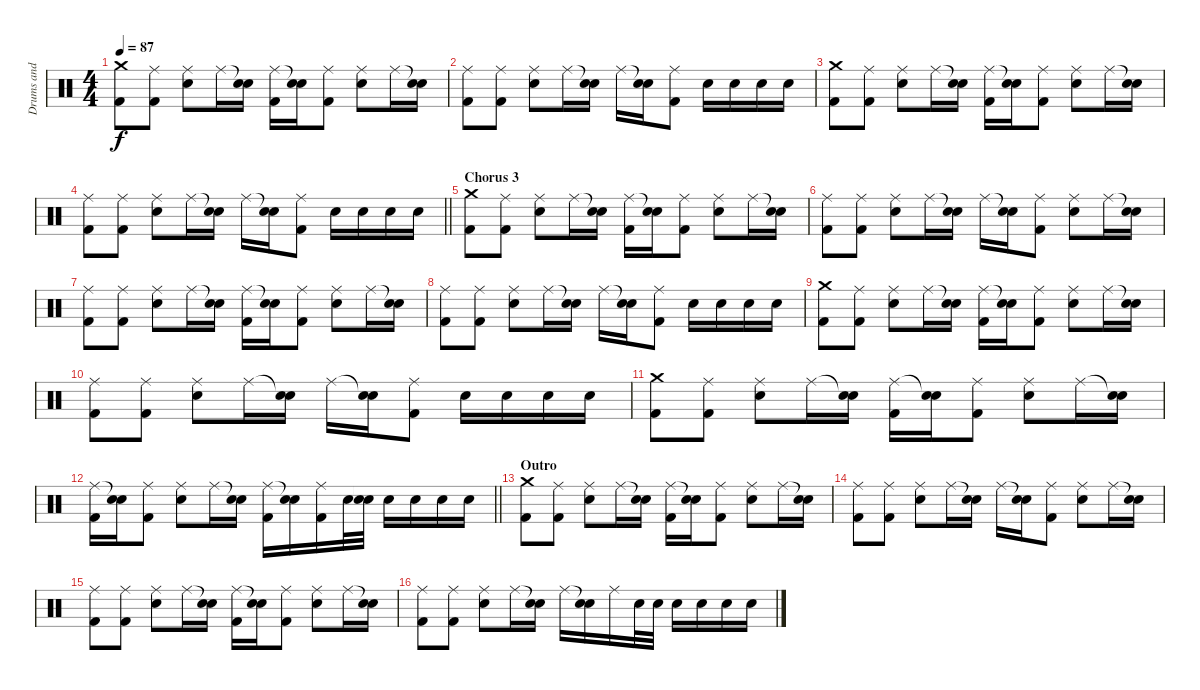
\track ("Drums and Percussion" "Drums and ") {instrument percussion}
\staff {score}
\articulation defaults
\ts (4 4)
\tempo 87
\clef neutral
\ks c
("Crash medium (hit)" "Kick (hit) 2").8{dy f} ("Ride (middle)" "Kick (hit) 2").8 ("Ride (middle)" "Snare (hit) 2").8 "Ride (middle)".16 ("Snare (hit)"{t} "Snare (hit) 2").16 ("Ride (middle)" "Kick (hit) 2").16 ("Snare (hit)"{t} "Snare (hit) 2").16 ("Ride (middle)" "Kick (hit) 2").8 ("Ride (middle)" "Snare (hit) 2").8 "Ride (middle)".16 ("Snare (hit)"{t} "Snare (hit) 2").16 |
("Ride (middle)" "Kick (hit) 2").8 ("Ride (middle)" "Kick (hit) 2").8 ("Ride (middle)" "Snare (hit) 2").8 "Ride (middle)".16 ("Snare (hit)"{t} "Snare (hit) 2").16 "Ride (middle)".16 ("Snare (hit)"{t} "Snare (hit) 2").16 ("Ride (middle)" "Kick (hit) 2").8 "Snare (hit) 2".16 "Snare (hit) 2".16 "Snare (hit) 2".16 "Snare (hit) 2".16 |
("Crash medium (hit)" "Kick (hit) 2").8 ("Ride (middle)" "Kick (hit) 2").8 ("Ride (middle)" "Snare (hit) 2").8 "Ride (middle)".16 ("Snare (hit)"{t} "Snare (hit) 2").16 ("Ride (middle)" "Kick (hit) 2").16 ("Snare (hit)"{t} "Snare (hit) 2").16 ("Ride (middle)" "Kick (hit) 2").8 ("Ride (middle)" "Snare (hit) 2").8 "Ride (middle)".16 ("Snare (hit)"{t} "Snare (hit) 2").16 |
\barLineRight lightlight
("Ride (middle)" "Kick (hit) 2").8 ("Ride (middle)" "Kick (hit) 2").8 ("Ride (middle)" "Snare (hit) 2").8 "Ride (middle)".16 ("Snare (hit)"{t} "Snare (hit) 2").16 "Ride (middle)".16 ("Snare (hit)"{t} "Snare (hit) 2").16 ("Ride (middle)" "Kick (hit) 2").8 "Snare (hit) 2".16 "Snare (hit) 2".16 "Snare (hit) 2".16 "Snare (hit) 2".16 |
\section ("" "Chorus 3")
("Crash medium (hit)" "Kick (hit) 2").8 ("Ride (middle)" "Kick (hit) 2").8 ("Ride (middle)" "Snare (hit) 2").8 "Ride (middle)".16 ("Snare (hit)"{t} "Snare (hit) 2").16 ("Ride (middle)" "Kick (hit) 2").16 ("Snare (hit)"{t} "Snare (hit) 2").16 ("Ride (middle)" "Kick (hit) 2").8 ("Ride (middle)" "Snare (hit) 2").8 "Ride (middle)".16 ("Snare (hit)"{t} "Snare (hit) 2").16 |
("Ride (middle)" "Kick (hit) 2").8 ("Ride (middle)" "Kick (hit) 2").8 ("Ride (middle)" "Snare (hit) 2").8 "Ride (middle)".16 ("Snare (hit)"{t} "Snare (hit) 2").16 "Ride (middle)".16 ("Snare (hit)"{t} "Snare (hit) 2").16 ("Ride (middle)" "Kick (hit) 2").8 ("Ride (middle)" "Snare (hit) 2").8 "Ride (middle)".16 ("Snare (hit)"{t} "Snare (hit) 2").16 |
("Ride (middle)" "Kick (hit) 2").8 ("Ride (middle)" "Kick (hit) 2").8 ("Ride (middle)" "Snare (hit) 2").8 "Ride (middle)".16 ("Snare (hit)"{t} "Snare (hit) 2").16 ("Ride (middle)" "Kick (hit) 2").16 ("Snare (hit)"{t} "Snare (hit) 2").16 ("Ride (middle)" "Kick (hit) 2").8 ("Ride (middle)" "Snare (hit) 2").8 "Ride (middle)".16 ("Snare (hit)"{t} "Snare (hit) 2").16 |
("Ride (middle)" "Kick (hit) 2").8 ("Ride (middle)" "Kick (hit) 2").8 ("Ride (middle)" "Snare (hit) 2").8 "Ride (middle)".16 ("Snare (hit)"{t} "Snare (hit) 2").16 "Ride (middle)".16 ("Snare (hit)"{t} "Snare (hit) 2").16 ("Ride (middle)" "Kick (hit) 2").8 "Snare (hit) 2".16 "Snare (hit) 2".16 "Snare (hit) 2".16 "Snare (hit) 2".16 |
("Crash medium (hit)" "Kick (hit) 2").8 ("Ride (middle)" "Kick (hit) 2").8 ("Ride (middle)" "Snare (hit) 2").8 "Ride (middle)".16 ("Snare (hit)"{t} "Snare (hit) 2").16 ("Ride (middle)" "Kick (hit) 2").16 ("Snare (hit)"{t} "Snare (hit) 2").16 ("Ride (middle)" "Kick (hit) 2").8 ("Ride (middle)" "Snare (hit) 2").8 "Ride (middle)".16 ("Snare (hit)"{t} "Snare (hit) 2").16 |
("Ride (middle)" "Kick (hit) 2").8 ("Ride (middle)" "Kick (hit) 2").8 ("Ride (middle)" "Snare (hit) 2").8 "Ride (middle)".16 ("Snare (hit)"{t} "Snare (hit) 2").16 "Ride (middle)".16 ("Snare (hit)"{t} "Snare (hit) 2").16 ("Ride (middle)" "Kick (hit) 2").8 "Snare (hit) 2".16 "Snare (hit) 2".16 "Snare (hit) 2".16 "Snare (hit) 2".16 |
("Crash medium (hit)" "Kick (hit) 2").8 ("Ride (middle)" "Kick (hit) 2").8 ("Ride (middle)" "Snare (hit) 2").8 "Ride (middle)".16 ("Snare (hit)"{t} "Snare (hit) 2").16 ("Ride (middle)" "Kick (hit) 2").16 ("Snare (hit)"{t} "Snare (hit) 2").16 ("Ride (middle)" "Kick (hit) 2").8 ("Ride (middle)" "Snare (hit) 2").8 "Ride (middle)".16 ("Snare (hit)"{t} "Snare (hit) 2").16 |
\barLineRight lightlight
("Ride (middle)" "Kick (hit) 2").16 ("Snare (hit)"{t} "Snare (hit) 2").16 ("Ride (middle)" "Kick (hit) 2").8 ("Ride (middle)" "Snare (hit) 2").8 "Ride (middle)".16 ("Snare (hit)"{t} "Snare (hit) 2").16 ("Ride (middle)" "Kick (hit) 2").16 ("Snare (hit)"{t} "Snare (hit) 2").16 ("Ride (middle)" "Kick (hit) 2").16 "Snare (hit) 2".32 ("Snare (hit)"{t} "Snare (hit) 2").32 "Snare (hit) 2".16 "Snare (hit) 2".16 "Snare (hit) 2".16 "Snare (hit) 2".16 |
\section ("" "Outro")
("Crash medium (hit)" "Kick (hit) 2").8 ("Ride (middle)" "Kick (hit) 2").8 ("Ride (middle)" "Snare (hit) 2").8 "Ride (middle)".16 ("Snare (hit)"{t} "Snare (hit) 2").16 ("Ride (middle)" "Kick (hit) 2").16 ("Snare (hit)"{t} "Snare (hit) 2").16 ("Ride (middle)" "Kick (hit) 2").8 ("Ride (middle)" "Snare (hit) 2").8 "Ride (middle)".16 ("Snare (hit)"{t} "Snare (hit) 2").16 |
("Ride (middle)" "Kick (hit) 2").8 ("Ride (middle)" "Kick (hit) 2").8 ("Ride (middle)" "Snare (hit) 2").8 "Ride (middle)".16 ("Snare (hit)"{t} "Snare (hit) 2").16 "Ride (middle)".16 ("Snare (hit)"{t} "Snare (hit) 2").16 ("Ride (middle)" "Kick (hit) 2").8 ("Ride (middle)" "Snare (hit) 2").8 "Ride (middle)".16 ("Snare (hit)"{t} "Snare (hit) 2").16 |
("Ride (middle)" "Kick (hit) 2").8 ("Ride (middle)" "Kick (hit) 2").8 ("Ride (middle)" "Snare (hit) 2").8 "Ride (middle)".16 ("Snare (hit)"{t} "Snare (hit) 2").16 ("Ride (middle)" "Kick (hit) 2").16 ("Snare (hit)"{t} "Snare (hit) 2").16 ("Ride (middle)" "Kick (hit) 2").8 ("Ride (middle)" "Snare (hit) 2").8 "Ride (middle)".16 ("Snare (hit)"{t} "Snare (hit) 2").16 |
("Ride (middle)" "Kick (hit) 2").8 ("Ride (middle)" "Kick (hit) 2").8 ("Ride (middle)" "Snare (hit) 2").8 "Ride (middle)".16 ("Snare (hit)"{t} "Snare (hit) 2").16 "Ride (middle)".16 ("Snare (hit)"{t} "Snare (hit) 2").16 "Ride (middle)".16 "Snare (hit) 2".32 "Snare (hit) 2".32 "Snare (hit) 2".16 "Snare (hit) 2".16 "Snare (hit) 2".16 "Snare (hit) 2".16
